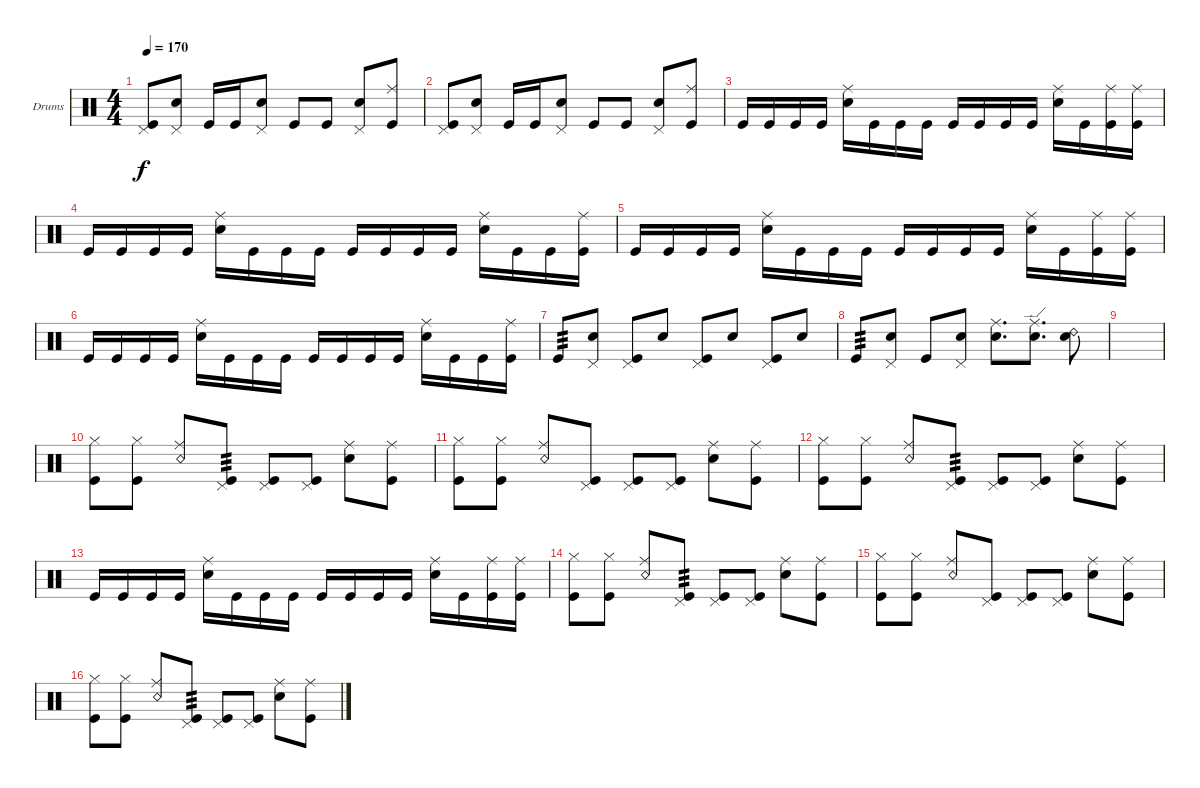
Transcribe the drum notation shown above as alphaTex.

\bracketExtendMode groupsimilarinstruments
\firstSystemTrackNameOrientation horizontal
\otherSystemsTrackNameOrientation horizontal
\track ("Danya" "Drums") {mute instrument percussion}
\staff {score}
\articulation defaults
\ts (4 4)
\tempo 170
\clef neutral
\scale
0.333333
\ks c
("Kick (hit)" "Pedal Hi-Hat (hit)").8{dy f} ("Snare (hit) 2" "Pedal Hi-Hat (hit)").8 "Kick (hit)".16 "Kick (hit)".16 ("Snare (hit) 2" "Pedal Hi-Hat (hit)").8 "Kick (hit)".8 "Kick (hit)".8 ("Snare (hit) 2" "Pedal Hi-Hat (hit)").8 ("Kick (hit)" "Ride (middle)").8 |
\scale
0.333333 ("Kick (hit)" "Pedal Hi-Hat (hit)").8 ("Snare (hit) 2" "Pedal Hi-Hat (hit)").8 "Kick (hit)".16 "Kick (hit)".16 ("Snare (hit) 2" "Pedal Hi-Hat (hit)").8 "Kick (hit)".8 "Kick (hit)".8 ("Snare (hit) 2" "Pedal Hi-Hat (hit)").8 ("Kick (hit)" "Ride (middle)").8 |
\scale
0.333333 "Kick (hit)".16 "Kick (hit)".16 "Kick (hit)".16 "Kick (hit)".16 ("Ride (middle)" "Snare (hit) 2").16 "Kick (hit)".16 "Kick (hit)".16 "Kick (hit)".16 "Kick (hit)".16 "Kick (hit)".16 "Kick (hit)".16 "Kick (hit)".16 ("Ride (middle)" "Snare (hit) 2").16 "Kick (hit)".16 ("Kick (hit)" "Ride (middle)").16 ("Kick (hit)" "Ride (middle)").16 |
\scale
0.333333 "Kick (hit)".16 "Kick (hit)".16 "Kick (hit)".16 "Kick (hit)".16 ("Ride (middle)" "Snare (hit) 2").16 "Kick (hit)".16 "Kick (hit)".16 "Kick (hit)".16 "Kick (hit)".16 "Kick (hit)".16 "Kick (hit)".16 "Kick (hit)".16 ("Ride (middle)" "Snare (hit) 2").16 "Kick (hit)".16 "Kick (hit)".16 ("Kick (hit)" "Ride (middle)").16 |
\scale
0.333333 "Kick (hit)".16 "Kick (hit)".16 "Kick (hit)".16 "Kick (hit)".16 ("Ride (middle)" "Snare (hit) 2").16 "Kick (hit)".16 "Kick (hit)".16 "Kick (hit)".16 "Kick (hit)".16 "Kick (hit)".16 "Kick (hit)".16 "Kick (hit)".16 ("Ride (middle)" "Snare (hit) 2").16 "Kick (hit)".16 ("Kick (hit)" "Ride (middle)").16 ("Kick (hit)" "Ride (middle)").16 |
\scale
0.333333 "Kick (hit)".16 "Kick (hit)".16 "Kick (hit)".16 "Kick (hit)".16 ("Ride (middle)" "Snare (hit) 2").16 "Kick (hit)".16 "Kick (hit)".16 "Kick (hit)".16 "Kick (hit)".16 "Kick (hit)".16 "Kick (hit)".16 "Kick (hit)".16 ("Ride (middle)" "Snare (hit) 2").16 "Kick (hit)".16 "Kick (hit)".16 ("Kick (hit)" "Ride (middle)").16 |
\scale
0.333333 "Kick (hit)".8{tp 3} ("Snare (hit) 2" "Pedal Hi-Hat (hit)").8 ("Kick (hit)" "Pedal Hi-Hat (hit)").8 "Snare (hit) 2".8 ("Pedal Hi-Hat (hit)" "Kick (hit)").8 "Snare (hit) 2".8 ("Kick (hit)" "Pedal Hi-Hat (hit)").8 "Snare (hit) 2".8 |
\scale
0.333333 "Kick (hit)".8{tp 3} ("Snare (hit) 2" "Pedal Hi-Hat (hit)").8 "Kick (hit)".8 ("Snare (hit) 2" "Pedal Hi-Hat (hit)").8 ("Snare (hit) 2" "Ride (middle)").8{d} ("Snare (hit) 2" "Ride (edge)").8{d} ("Snare (hit) 2" "Ride (bell) 2").8 |
|
\scale
0.333333 ("Hi-Hat (closed)" "Kick (hit)").8 ("Hi-Hat (closed)" "Kick (hit)").8 ("Snare (rim shot)" "Ride (middle)").8 ("Kick (hit)" "Pedal Hi-Hat (hit)").8{tp 3} ("Kick (hit)" "Pedal Hi-Hat (hit)").8 ("Kick (hit)" "Pedal Hi-Hat (hit)").8 ("Snare (hit) 2" "Ride (middle)").8 ("Kick (hit)" "Ride (middle)").8 |
\scale
0.333333 ("Hi-Hat (closed)" "Kick (hit)").8 ("Hi-Hat (closed)" "Kick (hit)").8 ("Snare (rim shot)" "Ride (middle)").8 ("Kick (hit)" "Pedal Hi-Hat (hit)").8 ("Kick (hit)" "Pedal Hi-Hat (hit)").8 ("Kick (hit)" "Pedal Hi-Hat (hit)").8 ("Snare (hit) 2" "Ride (middle)").8 ("Kick (hit)" "Ride (middle)").8 |
\scale
0.333333 ("Hi-Hat (closed)" "Kick (hit)").8 ("Hi-Hat (closed)" "Kick (hit)").8 ("Snare (rim shot)" "Ride (middle)").8 ("Kick (hit)" "Pedal Hi-Hat (hit)").8{tp 3} ("Kick (hit)" "Pedal Hi-Hat (hit)").8 ("Kick (hit)" "Pedal Hi-Hat (hit)").8 ("Snare (hit) 2" "Ride (middle)").8 ("Kick (hit)" "Ride (middle)").8 |
\scale
0.333333 "Kick (hit)".16 "Kick (hit)".16 "Kick (hit)".16 "Kick (hit)".16 ("Ride (middle)" "Snare (hit) 2").16 "Kick (hit)".16 "Kick (hit)".16 "Kick (hit)".16 "Kick (hit)".16 "Kick (hit)".16 "Kick (hit)".16 "Kick (hit)".16 ("Ride (middle)" "Snare (hit) 2").16 "Kick (hit)".16 ("Kick (hit)" "Ride (middle)").16 ("Kick (hit)" "Ride (middle)").16 |
\scale
0.333333 ("Hi-Hat (closed)" "Kick (hit)").8 ("Hi-Hat (closed)" "Kick (hit)").8 ("Snare (rim shot)" "Ride (middle)").8 ("Kick (hit)" "Pedal Hi-Hat (hit)").8{tp 3} ("Kick (hit)" "Pedal Hi-Hat (hit)").8 ("Kick (hit)" "Pedal Hi-Hat (hit)").8 ("Snare (hit) 2" "Ride (middle)").8 ("Kick (hit)" "Ride (middle)").8 |
\scale
0.333333 ("Hi-Hat (closed)" "Kick (hit)").8 ("Hi-Hat (closed)" "Kick (hit)").8 ("Snare (rim shot)" "Ride (middle)").8 ("Kick (hit)" "Pedal Hi-Hat (hit)").8 ("Kick (hit)" "Pedal Hi-Hat (hit)").8 ("Kick (hit)" "Pedal Hi-Hat (hit)").8 ("Snare (hit) 2" "Ride (middle)").8 ("Kick (hit)" "Ride (middle)").8 |
\scale
0.333333 ("Hi-Hat (closed)" "Kick (hit)").8 ("Hi-Hat (closed)" "Kick (hit)").8 ("Snare (rim shot)" "Ride (middle)").8 ("Kick (hit)" "Pedal Hi-Hat (hit)").8{tp 3} ("Kick (hit)" "Pedal Hi-Hat (hit)").8 ("Kick (hit)" "Pedal Hi-Hat (hit)").8 ("Snare (hit) 2" "Ride (middle)").8 ("Kick (hit)" "Ride (middle)").8
